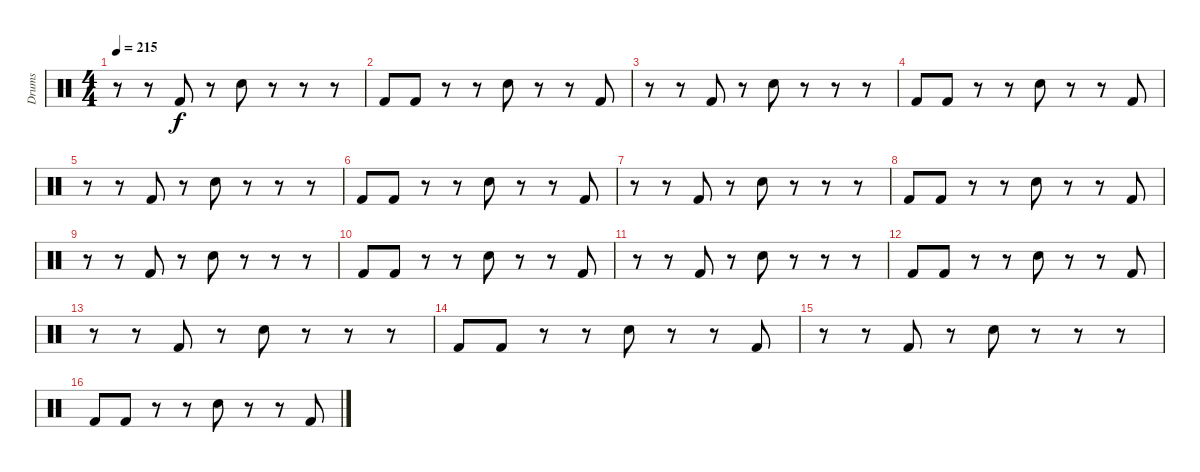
\track ("Drums" "Drums") {instrument percussion}
\staff {score}
\articulation defaults
\ts (4 4)
\tempo 215
\clef neutral
\ks c
r.8{dy f} r.8 "Kick (hit) 2".8 r.8 "Electric Snare (hit)".8 r.8 r.8 r.8 |
"Kick (hit) 2".8 "Kick (hit) 2".8 r.8 r.8 "Electric Snare (hit)".8 r.8 r.8 "Kick (hit) 2".8 |
r.8 r.8 "Kick (hit) 2".8 r.8 "Electric Snare (hit)".8 r.8 r.8 r.8 |
"Kick (hit) 2".8 "Kick (hit) 2".8 r.8 r.8 "Electric Snare (hit)".8 r.8 r.8 "Kick (hit) 2".8 |
r.8 r.8 "Kick (hit) 2".8 r.8 "Electric Snare (hit)".8 r.8 r.8 r.8 |
"Kick (hit) 2".8 "Kick (hit) 2".8 r.8 r.8 "Electric Snare (hit)".8 r.8 r.8 "Kick (hit) 2".8 |
r.8 r.8 "Kick (hit) 2".8 r.8 "Electric Snare (hit)".8 r.8 r.8 r.8 |
"Kick (hit) 2".8 "Kick (hit) 2".8 r.8 r.8 "Electric Snare (hit)".8 r.8 r.8 "Kick (hit) 2".8 |
r.8 r.8 "Kick (hit) 2".8 r.8 "Electric Snare (hit)".8 r.8 r.8 r.8 |
"Kick (hit) 2".8 "Kick (hit) 2".8 r.8 r.8 "Electric Snare (hit)".8 r.8 r.8 "Kick (hit) 2".8 |
r.8 r.8 "Kick (hit) 2".8 r.8 "Electric Snare (hit)".8 r.8 r.8 r.8 |
"Kick (hit) 2".8 "Kick (hit) 2".8 r.8 r.8 "Electric Snare (hit)".8 r.8 r.8 "Kick (hit) 2".8 |
r.8 r.8 "Kick (hit) 2".8 r.8 "Electric Snare (hit)".8 r.8 r.8 r.8 |
"Kick (hit) 2".8 "Kick (hit) 2".8 r.8 r.8 "Electric Snare (hit)".8 r.8 r.8 "Kick (hit) 2".8 |
r.8 r.8 "Kick (hit) 2".8 r.8 "Electric Snare (hit)".8 r.8 r.8 r.8 |
"Kick (hit) 2".8 "Kick (hit) 2".8 r.8 r.8 "Electric Snare (hit)".8 r.8 r.8 "Kick (hit) 2".8
